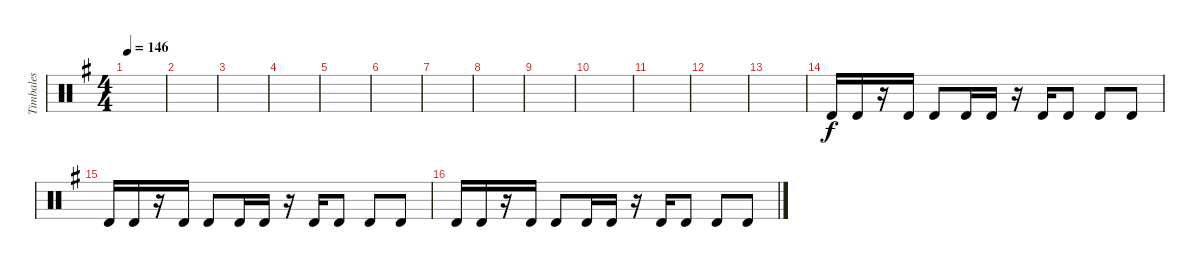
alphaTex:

\track ("Timbales" "Timbales") {instrument percussion}
\staff {score}
\articulation defaults
\ts (4 4)
\tempo 146
\clef neutral
\ks g
|
|
|
|
|
|
|
|
|
|
|
|
|
"Timbale high (hit)".16 "Timbale high (hit)".16 r.16 "Timbale high (hit)".16 "Timbale high (hit)".8 "Timbale high (hit)".16 "Timbale high (hit)".16 r.16 "Timbale high (hit)".16 "Timbale high (hit)".8 "Timbale high (hit)".8 "Timbale high (hit)".8 |
"Timbale high (hit)".16 "Timbale high (hit)".16 r.16 "Timbale high (hit)".16 "Timbale high (hit)".8 "Timbale high (hit)".16 "Timbale high (hit)".16 r.16 "Timbale high (hit)".16 "Timbale high (hit)".8 "Timbale high (hit)".8 "Timbale high (hit)".8 |
"Timbale high (hit)".16 "Timbale high (hit)".16 r.16 "Timbale high (hit)".16 "Timbale high (hit)".8 "Timbale high (hit)".16 "Timbale high (hit)".16 r.16 "Timbale high (hit)".16 "Timbale high (hit)".8 "Timbale high (hit)".8 "Timbale high (hit)".8
